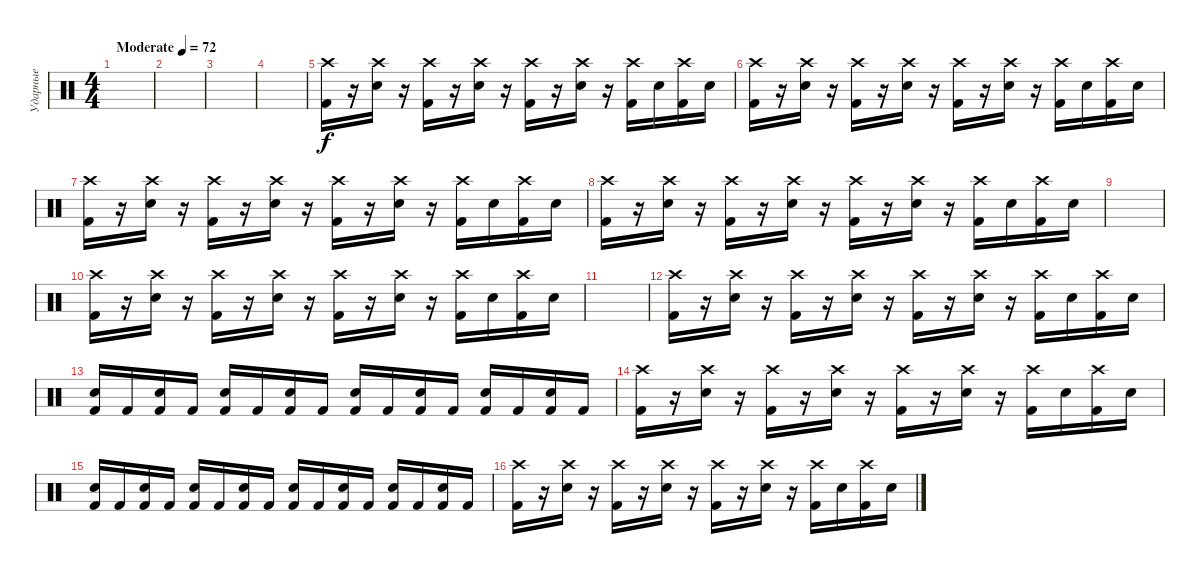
\track ("Ударные" "Ударные") {instrument percussion}
\staff {score}
\articulation defaults
\ts (4 4)
\tempo (72 "Moderate")
\clef neutral
\ks c
|
|
|
|
("Crash high (hit)" "Kick (hit) 2").16 r.16 ("Crash high (hit)" "Snare (hit) 2").16 r.16 ("Crash high (hit)" "Kick (hit) 2").16 r.16 ("Crash high (hit)" "Snare (hit) 2").16 r.16 ("Crash high (hit)" "Kick (hit) 2").16 r.16 ("Crash high (hit)" "Snare (hit) 2").16 r.16 ("Crash high (hit)" "Kick (hit) 2").16 "Snare (hit) 2".16 ("Crash high (hit)" "Kick (hit) 2").16 "Snare (hit) 2".16 |
("Crash high (hit)" "Kick (hit) 2").16 r.16 ("Crash high (hit)" "Snare (hit) 2").16 r.16 ("Crash high (hit)" "Kick (hit) 2").16 r.16 ("Crash high (hit)" "Snare (hit) 2").16 r.16 ("Crash high (hit)" "Kick (hit) 2").16 r.16 ("Crash high (hit)" "Snare (hit) 2").16 r.16 ("Crash high (hit)" "Kick (hit) 2").16 "Snare (hit) 2".16 ("Crash high (hit)" "Kick (hit) 2").16 "Snare (hit) 2".16 |
("Crash high (hit)" "Kick (hit) 2").16 r.16 ("Crash high (hit)" "Snare (hit) 2").16 r.16 ("Crash high (hit)" "Kick (hit) 2").16 r.16 ("Crash high (hit)" "Snare (hit) 2").16 r.16 ("Crash high (hit)" "Kick (hit) 2").16 r.16 ("Crash high (hit)" "Snare (hit) 2").16 r.16 ("Crash high (hit)" "Kick (hit) 2").16 "Snare (hit) 2".16 ("Crash high (hit)" "Kick (hit) 2").16 "Snare (hit) 2".16 |
("Crash high (hit)" "Kick (hit) 2").16 r.16 ("Crash high (hit)" "Snare (hit) 2").16 r.16 ("Crash high (hit)" "Kick (hit) 2").16 r.16 ("Crash high (hit)" "Snare (hit) 2").16 r.16 ("Crash high (hit)" "Kick (hit) 2").16 r.16 ("Crash high (hit)" "Snare (hit) 2").16 r.16 ("Crash high (hit)" "Kick (hit) 2").16 "Snare (hit) 2".16 ("Crash high (hit)" "Kick (hit) 2").16 "Snare (hit) 2".16 |
|
("Crash high (hit)" "Kick (hit) 2").16 r.16 ("Crash high (hit)" "Snare (hit) 2").16 r.16 ("Crash high (hit)" "Kick (hit) 2").16 r.16 ("Crash high (hit)" "Snare (hit) 2").16 r.16 ("Crash high (hit)" "Kick (hit) 2").16 r.16 ("Crash high (hit)" "Snare (hit) 2").16 r.16 ("Crash high (hit)" "Kick (hit) 2").16 "Snare (hit) 2".16 ("Crash high (hit)" "Kick (hit) 2").16 "Snare (hit) 2".16 |
|
("Crash high (hit)" "Kick (hit) 2").16 r.16 ("Crash high (hit)" "Snare (hit) 2").16 r.16 ("Crash high (hit)" "Kick (hit) 2").16 r.16 ("Crash high (hit)" "Snare (hit) 2").16 r.16 ("Crash high (hit)" "Kick (hit) 2").16 r.16 ("Crash high (hit)" "Snare (hit) 2").16 r.16 ("Crash high (hit)" "Kick (hit) 2").16 "Snare (hit) 2".16 ("Crash high (hit)" "Kick (hit) 2").16 "Snare (hit) 2".16 |
("Snare (hit) 2" "Kick (hit) 2").16 "Kick (hit) 2".16 ("Snare (hit) 2" "Kick (hit) 2").16 "Kick (hit) 2".16 ("Snare (hit) 2" "Kick (hit) 2").16 "Kick (hit) 2".16 ("Snare (hit) 2" "Kick (hit) 2").16 "Kick (hit) 2".16 ("Snare (hit) 2" "Kick (hit) 2").16 "Kick (hit) 2".16 ("Snare (hit) 2" "Kick (hit) 2").16 "Kick (hit) 2".16 ("Snare (hit) 2" "Kick (hit) 2").16 "Kick (hit) 2".16 ("Snare (hit) 2" "Kick (hit) 2").16 "Kick (hit) 2".16 |
("Crash high (hit)" "Kick (hit) 2").16 r.16 ("Crash high (hit)" "Snare (hit) 2").16 r.16 ("Crash high (hit)" "Kick (hit) 2").16 r.16 ("Crash high (hit)" "Snare (hit) 2").16 r.16 ("Crash high (hit)" "Kick (hit) 2").16 r.16 ("Crash high (hit)" "Snare (hit) 2").16 r.16 ("Crash high (hit)" "Kick (hit) 2").16 "Snare (hit) 2".16 ("Crash high (hit)" "Kick (hit) 2").16 "Snare (hit) 2".16 |
("Snare (hit) 2" "Kick (hit) 2").16 "Kick (hit) 2".16 ("Snare (hit) 2" "Kick (hit) 2").16 "Kick (hit) 2".16 ("Snare (hit) 2" "Kick (hit) 2").16 "Kick (hit) 2".16 ("Snare (hit) 2" "Kick (hit) 2").16 "Kick (hit) 2".16 ("Snare (hit) 2" "Kick (hit) 2").16 "Kick (hit) 2".16 ("Snare (hit) 2" "Kick (hit) 2").16 "Kick (hit) 2".16 ("Snare (hit) 2" "Kick (hit) 2").16 "Kick (hit) 2".16 ("Snare (hit) 2" "Kick (hit) 2").16 "Kick (hit) 2".16 |
("Crash high (hit)" "Kick (hit) 2").16 r.16 ("Crash high (hit)" "Snare (hit) 2").16 r.16 ("Crash high (hit)" "Kick (hit) 2").16 r.16 ("Crash high (hit)" "Snare (hit) 2").16 r.16 ("Crash high (hit)" "Kick (hit) 2").16 r.16 ("Crash high (hit)" "Snare (hit) 2").16 r.16 ("Crash high (hit)" "Kick (hit) 2").16 "Snare (hit) 2".16 ("Crash high (hit)" "Kick (hit) 2").16 "Snare (hit) 2".16
